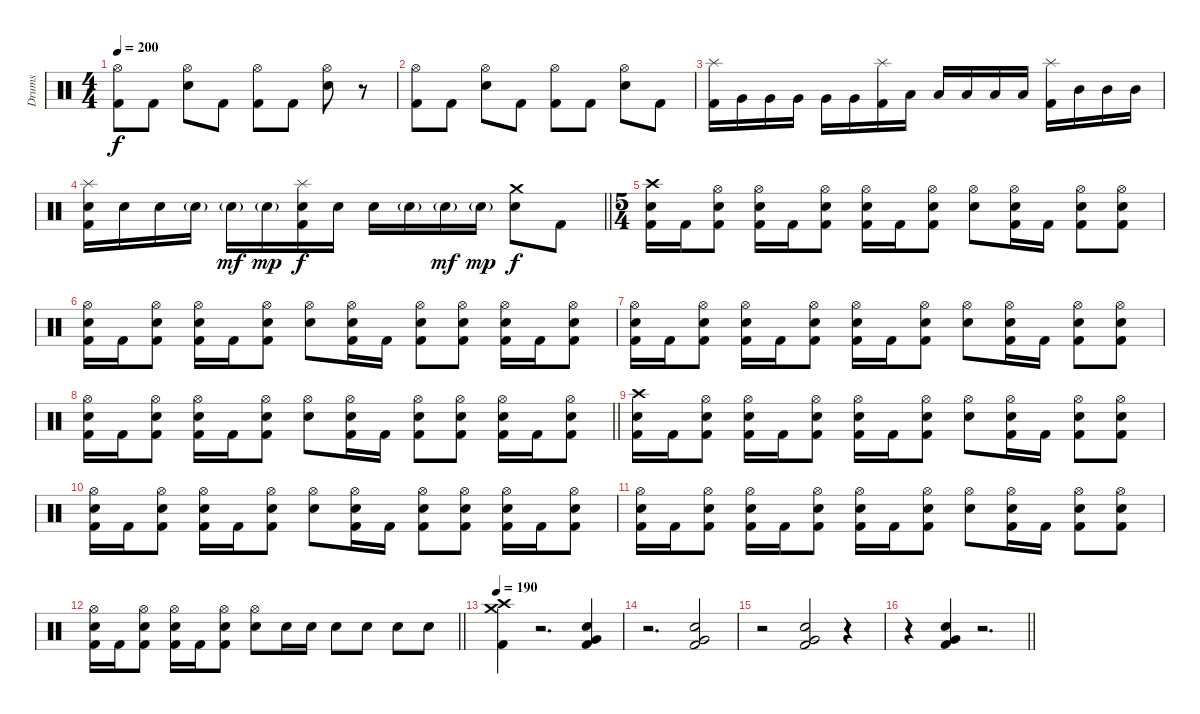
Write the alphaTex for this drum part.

\track ("Drums" "Drums") {instrument percussion}
\staff {score}
\articulation defaults
\ts (4 4)
\tempo 200
\clef neutral
\ks c
("Hi-Hat (open)" "Kick (hit) 2").8{dy f} "Kick (hit) 2".8 ("Hi-Hat (open)" "Electric Snare (hit)").8 "Kick (hit) 2".8 ("Hi-Hat (open)" "Kick (hit) 2").8 "Kick (hit) 2".8 ("Hi-Hat (open)" "Electric Snare (hit)").8 r.8 |
("Hi-Hat (open)" "Kick (hit) 2").8 "Kick (hit) 2".8 ("Hi-Hat (open)" "Electric Snare (hit)").8 "Kick (hit) 2".8 ("Hi-Hat (open)" "Kick (hit) 2").8 "Kick (hit) 2".8 ("Hi-Hat (open)" "Electric Snare (hit)").8 "Kick (hit) 2".8 |
("Splash (hit)" "Kick (hit) 2").16 "Very Low Tom (hit)".16 "Very Low Tom (hit)".16 "Very Low Tom (hit)".16 "Very Low Tom (hit)".16 "Very Low Tom (hit)".16 ("Splash (hit)" "Kick (hit) 2").16 "Low Tom (hit)".16 "Low Tom (hit)".16 "Low Tom (hit)".16 "Low Tom (hit)".16 "Low Tom (hit)".16 ("Splash (hit)" "Kick (hit) 2").16 "Mid Tom (hit)".16 "Mid Tom (hit)".16 "Mid Tom (hit)".16 |
\barLineRight lightlight
("Splash (hit)" "Electric Snare (hit)" "Kick (hit) 2").16 "Electric Snare (hit)".16 "Electric Snare (hit)".16 "Electric Snare (hit)"{g}.16 "Electric Snare (hit)"{g}.16{dy mf} "Electric Snare (hit)"{g}.16{dy mp} ("Splash (hit)" "Electric Snare (hit)" "Kick (hit) 2").16{dy f} "Electric Snare (hit)".16 "Electric Snare (hit)".16 "Electric Snare (hit)"{g}.16 "Electric Snare (hit)"{g}.16{dy mf} "Electric Snare (hit)"{g}.16{dy mp} ("Crash medium (hit)" "Electric Snare (hit)").8{dy f} "Kick (hit) 2".8 |
\ts (5 4)
("Crash high (hit)" "Electric Snare (hit)" "Kick (hit) 2").16 "Kick (hit) 2".16 ("Hi-Hat (open)" "Electric Snare (hit)" "Kick (hit) 2").8 ("Hi-Hat (open)" "Electric Snare (hit)" "Kick (hit) 2").16 "Kick (hit) 2".16 ("Hi-Hat (open)" "Electric Snare (hit)" "Kick (hit) 2").8 ("Hi-Hat (open)" "Electric Snare (hit)" "Kick (hit) 2").16 "Kick (hit) 2".16 ("Hi-Hat (open)" "Electric Snare (hit)" "Kick (hit) 2").8 ("Hi-Hat (open)" "Electric Snare (hit)").8 ("Hi-Hat (open)" "Electric Snare (hit)" "Kick (hit) 2").16 "Kick (hit) 2".16 ("Hi-Hat (open)" "Electric Snare (hit)" "Kick (hit) 2").8 ("Hi-Hat (open)" "Electric Snare (hit)" "Kick (hit) 2").8 |
("Hi-Hat (open)" "Electric Snare (hit)" "Kick (hit) 2").16 "Kick (hit) 2".16 ("Hi-Hat (open)" "Electric Snare (hit)" "Kick (hit) 2").8 ("Hi-Hat (open)" "Electric Snare (hit)" "Kick (hit) 2").16 "Kick (hit) 2".16 ("Hi-Hat (open)" "Electric Snare (hit)" "Kick (hit) 2").8 ("Hi-Hat (open)" "Electric Snare (hit)").8 ("Hi-Hat (open)" "Electric Snare (hit)" "Kick (hit) 2").16 "Kick (hit) 2".16 ("Hi-Hat (open)" "Electric Snare (hit)" "Kick (hit) 2").8 ("Hi-Hat (open)" "Electric Snare (hit)" "Kick (hit) 2").8 ("Hi-Hat (open)" "Electric Snare (hit)" "Kick (hit) 2").16 "Kick (hit) 2".16 ("Hi-Hat (open)" "Electric Snare (hit)" "Kick (hit) 2").8 |
("Hi-Hat (open)" "Electric Snare (hit)" "Kick (hit) 2").16 "Kick (hit) 2".16 ("Hi-Hat (open)" "Electric Snare (hit)" "Kick (hit) 2").8 ("Hi-Hat (open)" "Electric Snare (hit)" "Kick (hit) 2").16 "Kick (hit) 2".16 ("Hi-Hat (open)" "Electric Snare (hit)" "Kick (hit) 2").8 ("Hi-Hat (open)" "Electric Snare (hit)" "Kick (hit) 2").16 "Kick (hit) 2".16 ("Hi-Hat (open)" "Electric Snare (hit)" "Kick (hit) 2").8 ("Hi-Hat (open)" "Electric Snare (hit)").8 ("Hi-Hat (open)" "Electric Snare (hit)" "Kick (hit) 2").16 "Kick (hit) 2".16 ("Hi-Hat (open)" "Electric Snare (hit)" "Kick (hit) 2").8 ("Hi-Hat (open)" "Electric Snare (hit)" "Kick (hit) 2").8 |
\barLineRight lightlight
("Hi-Hat (open)" "Electric Snare (hit)" "Kick (hit) 2").16 "Kick (hit) 2".16 ("Hi-Hat (open)" "Electric Snare (hit)" "Kick (hit) 2").8 ("Hi-Hat (open)" "Electric Snare (hit)" "Kick (hit) 2").16 "Kick (hit) 2".16 ("Hi-Hat (open)" "Electric Snare (hit)" "Kick (hit) 2").8 ("Hi-Hat (open)" "Electric Snare (hit)").8 ("Hi-Hat (open)" "Electric Snare (hit)" "Kick (hit) 2").16 "Kick (hit) 2".16 ("Hi-Hat (open)" "Electric Snare (hit)" "Kick (hit) 2").8 ("Hi-Hat (open)" "Electric Snare (hit)" "Kick (hit) 2").8 ("Hi-Hat (open)" "Electric Snare (hit)" "Kick (hit) 2").16 "Kick (hit) 2".16 ("Hi-Hat (open)" "Electric Snare (hit)" "Kick (hit) 2").8 |
("Crash high (hit)" "Electric Snare (hit)" "Kick (hit) 2").16 "Kick (hit) 2".16 ("Hi-Hat (open)" "Electric Snare (hit)" "Kick (hit) 2").8 ("Hi-Hat (open)" "Electric Snare (hit)" "Kick (hit) 2").16 "Kick (hit) 2".16 ("Hi-Hat (open)" "Electric Snare (hit)" "Kick (hit) 2").8 ("Hi-Hat (open)" "Electric Snare (hit)" "Kick (hit) 2").16 "Kick (hit) 2".16 ("Hi-Hat (open)" "Electric Snare (hit)" "Kick (hit) 2").8 ("Hi-Hat (open)" "Electric Snare (hit)").8 ("Hi-Hat (open)" "Electric Snare (hit)" "Kick (hit) 2").16 "Kick (hit) 2".16 ("Hi-Hat (open)" "Electric Snare (hit)" "Kick (hit) 2").8 ("Hi-Hat (open)" "Electric Snare (hit)" "Kick (hit) 2").8 |
("Hi-Hat (open)" "Electric Snare (hit)" "Kick (hit) 2").16 "Kick (hit) 2".16 ("Hi-Hat (open)" "Electric Snare (hit)" "Kick (hit) 2").8 ("Hi-Hat (open)" "Electric Snare (hit)" "Kick (hit) 2").16 "Kick (hit) 2".16 ("Hi-Hat (open)" "Electric Snare (hit)" "Kick (hit) 2").8 ("Hi-Hat (open)" "Electric Snare (hit)").8 ("Hi-Hat (open)" "Electric Snare (hit)" "Kick (hit) 2").16 "Kick (hit) 2".16 ("Hi-Hat (open)" "Electric Snare (hit)" "Kick (hit) 2").8 ("Hi-Hat (open)" "Electric Snare (hit)" "Kick (hit) 2").8 ("Hi-Hat (open)" "Electric Snare (hit)" "Kick (hit) 2").16 "Kick (hit) 2".16 ("Hi-Hat (open)" "Electric Snare (hit)" "Kick (hit) 2").8 |
("Hi-Hat (open)" "Electric Snare (hit)" "Kick (hit) 2").16 "Kick (hit) 2".16 ("Hi-Hat (open)" "Electric Snare (hit)" "Kick (hit) 2").8 ("Hi-Hat (open)" "Electric Snare (hit)" "Kick (hit) 2").16 "Kick (hit) 2".16 ("Hi-Hat (open)" "Electric Snare (hit)" "Kick (hit) 2").8 ("Hi-Hat (open)" "Electric Snare (hit)" "Kick (hit) 2").16 "Kick (hit) 2".16 ("Hi-Hat (open)" "Electric Snare (hit)" "Kick (hit) 2").8 ("Hi-Hat (open)" "Electric Snare (hit)").8 ("Hi-Hat (open)" "Electric Snare (hit)" "Kick (hit) 2").16 "Kick (hit) 2".16 ("Hi-Hat (open)" "Electric Snare (hit)" "Kick (hit) 2").8 ("Hi-Hat (open)" "Electric Snare (hit)" "Kick (hit) 2").8 |
\barLineRight lightlight
("Hi-Hat (open)" "Electric Snare (hit)" "Kick (hit) 2").16 "Kick (hit) 2".16 ("Hi-Hat (open)" "Electric Snare (hit)" "Kick (hit) 2").8 ("Hi-Hat (open)" "Electric Snare (hit)" "Kick (hit) 2").16 "Kick (hit) 2".16 ("Hi-Hat (open)" "Electric Snare (hit)" "Kick (hit) 2").8 ("Hi-Hat (open)" "Electric Snare (hit)").8 "Electric Snare (hit)".16 "Electric Snare (hit)".16 "Electric Snare (hit)".8 "Electric Snare (hit)".8 "Electric Snare (hit)".8 "Electric Snare (hit)".8 |
\tempo 190
("Crash high (hit)" "Crash medium (hit)" "Kick (hit) 2").4 r.2{d} ("Electric Snare (hit)" "Very Low Tom (hit)" "Kick (hit) 2").4{volume 6} |
r.2{d} ("Electric Snare (hit)" "Very Low Tom (hit)" "Kick (hit) 2").2 |
r.2 ("Electric Snare (hit)" "Very Low Tom (hit)" "Kick (hit) 2").2 r.4 |
\barLineRight lightlight
r.4 ("Electric Snare (hit)" "Very Low Tom (hit)" "Kick (hit) 2").4 r.2{d}
